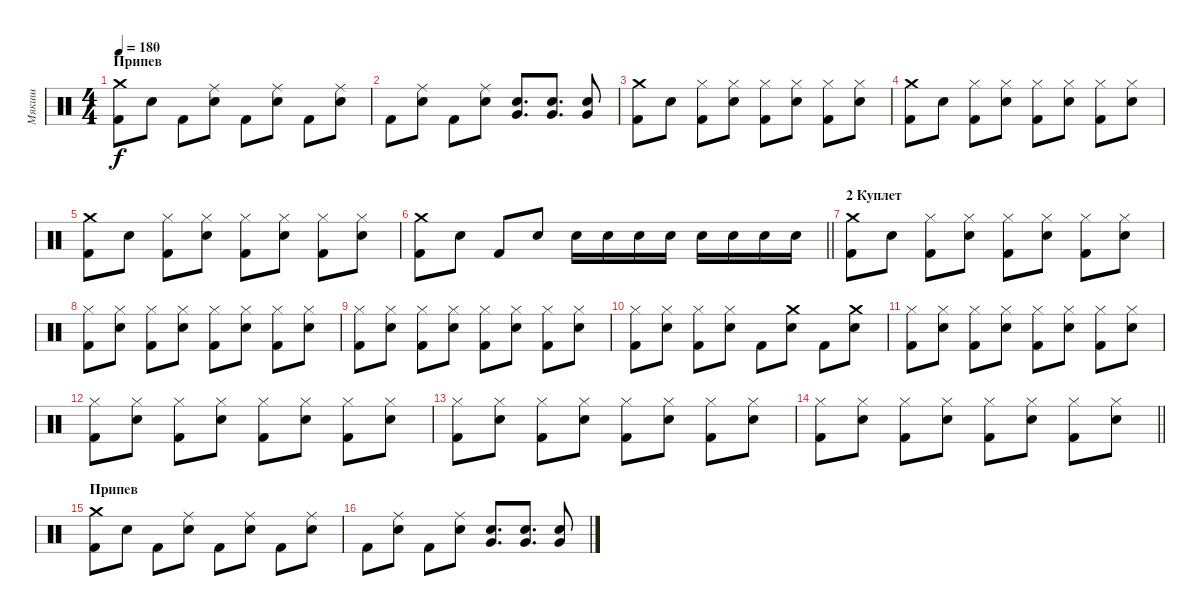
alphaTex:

\track ("Мякиш" "Мякиш") {instrument percussion}
\staff {score}
\articulation defaults
\ts (4 4)
\section ("" "Припев")
\tempo 180
\clef neutral
\ks c
("Crash medium (hit)" "Kick (hit) 2").8{dy f} "Electric Snare (hit)".8 "Kick (hit) 2".8 ("Ride (middle)" "Electric Snare (hit)").8 "Kick (hit) 2".8 ("Ride (middle)" "Electric Snare (hit)").8 "Kick (hit) 2".8 ("Ride (middle)" "Electric Snare (hit)").8 |
"Kick (hit) 2".8 ("Ride (middle)" "Electric Snare (hit)").8 "Kick (hit) 2".8 ("Ride (middle)" "Electric Snare (hit)").8 ("Very Low Tom (hit)" "Electric Snare (hit)").8{d} ("Very Low Tom (hit)" "Electric Snare (hit)").8{d} ("Very Low Tom (hit)" "Electric Snare (hit)").8 |
("Crash medium (hit)" "Kick (hit) 2").8 "Electric Snare (hit)".8 ("Hi-Hat (closed)" "Kick (hit) 2").8 ("Hi-Hat (closed)" "Electric Snare (hit)").8 ("Hi-Hat (closed)" "Kick (hit) 2").8 ("Hi-Hat (closed)" "Electric Snare (hit)").8 ("Hi-Hat (closed)" "Kick (hit) 2").8 ("Hi-Hat (closed)" "Electric Snare (hit)").8 |
("Crash medium (hit)" "Kick (hit) 2").8 "Electric Snare (hit)".8 ("Hi-Hat (closed)" "Kick (hit) 2").8 ("Hi-Hat (closed)" "Electric Snare (hit)").8 ("Hi-Hat (closed)" "Kick (hit) 2").8 ("Hi-Hat (closed)" "Electric Snare (hit)").8 ("Hi-Hat (closed)" "Kick (hit) 2").8 ("Hi-Hat (closed)" "Electric Snare (hit)").8 |
("Crash medium (hit)" "Kick (hit) 2").8 "Electric Snare (hit)".8 ("Hi-Hat (closed)" "Kick (hit) 2").8 ("Hi-Hat (closed)" "Electric Snare (hit)").8 ("Hi-Hat (closed)" "Kick (hit) 2").8 ("Hi-Hat (closed)" "Electric Snare (hit)").8 ("Hi-Hat (closed)" "Kick (hit) 2").8 ("Hi-Hat (closed)" "Electric Snare (hit)").8 |
\barLineRight lightlight
("Crash medium (hit)" "Kick (hit) 2").8 "Electric Snare (hit)".8 "Kick (hit) 2".8 "Electric Snare (hit)".8 "Electric Snare (hit)".16 "Electric Snare (hit)".16 "Electric Snare (hit)".16 "Electric Snare (hit)".16 "Electric Snare (hit)".16 "Electric Snare (hit)".16 "Electric Snare (hit)".16 "Electric Snare (hit)".16 |
\section ("" "2 Куплет")
("Crash medium (hit)" "Kick (hit) 2").8 "Electric Snare (hit)".8 ("Hi-Hat (closed)" "Kick (hit) 2").8 ("Hi-Hat (closed)" "Electric Snare (hit)").8 ("Hi-Hat (closed)" "Kick (hit) 2").8 ("Hi-Hat (closed)" "Electric Snare (hit)").8 ("Hi-Hat (closed)" "Kick (hit) 2").8 ("Hi-Hat (closed)" "Electric Snare (hit)").8 |
("Hi-Hat (closed)" "Kick (hit) 2").8 ("Hi-Hat (closed)" "Electric Snare (hit)").8 ("Hi-Hat (closed)" "Kick (hit) 2").8 ("Hi-Hat (closed)" "Electric Snare (hit)").8 ("Hi-Hat (closed)" "Kick (hit) 2").8 ("Hi-Hat (closed)" "Electric Snare (hit)").8 ("Hi-Hat (closed)" "Kick (hit) 2").8 ("Hi-Hat (closed)" "Electric Snare (hit)").8 |
("Hi-Hat (closed)" "Kick (hit) 2").8 ("Hi-Hat (closed)" "Electric Snare (hit)").8 ("Hi-Hat (closed)" "Kick (hit) 2").8 ("Hi-Hat (closed)" "Electric Snare (hit)").8 ("Hi-Hat (closed)" "Kick (hit) 2").8 ("Hi-Hat (closed)" "Electric Snare (hit)").8 ("Hi-Hat (closed)" "Kick (hit) 2").8 ("Hi-Hat (closed)" "Electric Snare (hit)").8 |
("Hi-Hat (closed)" "Kick (hit) 2").8 ("Hi-Hat (closed)" "Electric Snare (hit)").8 ("Hi-Hat (closed)" "Kick (hit) 2").8 ("Hi-Hat (closed)" "Electric Snare (hit)").8 "Kick (hit) 2".8 ("Crash medium (hit)" "Electric Snare (hit)").8 "Kick (hit) 2".8 ("Crash medium (hit)" "Electric Snare (hit)").8 |
("Hi-Hat (closed)" "Kick (hit) 2").8 ("Hi-Hat (closed)" "Electric Snare (hit)").8 ("Hi-Hat (closed)" "Kick (hit) 2").8 ("Hi-Hat (closed)" "Electric Snare (hit)").8 ("Hi-Hat (closed)" "Kick (hit) 2").8 ("Hi-Hat (closed)" "Electric Snare (hit)").8 ("Hi-Hat (closed)" "Kick (hit) 2").8 ("Hi-Hat (closed)" "Electric Snare (hit)").8 |
("Hi-Hat (closed)" "Kick (hit) 2").8 ("Hi-Hat (closed)" "Electric Snare (hit)").8 ("Hi-Hat (closed)" "Kick (hit) 2").8 ("Hi-Hat (closed)" "Electric Snare (hit)").8 ("Hi-Hat (closed)" "Kick (hit) 2").8 ("Hi-Hat (closed)" "Electric Snare (hit)").8 ("Hi-Hat (closed)" "Kick (hit) 2").8 ("Hi-Hat (closed)" "Electric Snare (hit)").8 |
("Hi-Hat (closed)" "Kick (hit) 2").8 ("Hi-Hat (closed)" "Electric Snare (hit)").8 ("Hi-Hat (closed)" "Kick (hit) 2").8 ("Hi-Hat (closed)" "Electric Snare (hit)").8 ("Hi-Hat (closed)" "Kick (hit) 2").8 ("Hi-Hat (closed)" "Electric Snare (hit)").8 ("Hi-Hat (closed)" "Kick (hit) 2").8 ("Hi-Hat (closed)" "Electric Snare (hit)").8 |
\barLineRight lightlight
("Hi-Hat (closed)" "Kick (hit) 2").8 ("Hi-Hat (closed)" "Electric Snare (hit)").8 ("Hi-Hat (closed)" "Kick (hit) 2").8 ("Hi-Hat (closed)" "Electric Snare (hit)").8 ("Hi-Hat (closed)" "Kick (hit) 2").8 ("Hi-Hat (closed)" "Electric Snare (hit)").8 ("Hi-Hat (closed)" "Kick (hit) 2").8 ("Hi-Hat (closed)" "Electric Snare (hit)").8 |
\section ("" "Припев")
("Crash medium (hit)" "Kick (hit) 2").8 "Electric Snare (hit)".8 "Kick (hit) 2".8 ("Ride (middle)" "Electric Snare (hit)").8 "Kick (hit) 2".8 ("Ride (middle)" "Electric Snare (hit)").8 "Kick (hit) 2".8 ("Ride (middle)" "Electric Snare (hit)").8 |
"Kick (hit) 2".8 ("Ride (middle)" "Electric Snare (hit)").8 "Kick (hit) 2".8 ("Ride (middle)" "Electric Snare (hit)").8 ("Very Low Tom (hit)" "Electric Snare (hit)").8{d} ("Very Low Tom (hit)" "Electric Snare (hit)").8{d} ("Very Low Tom (hit)" "Electric Snare (hit)").8
